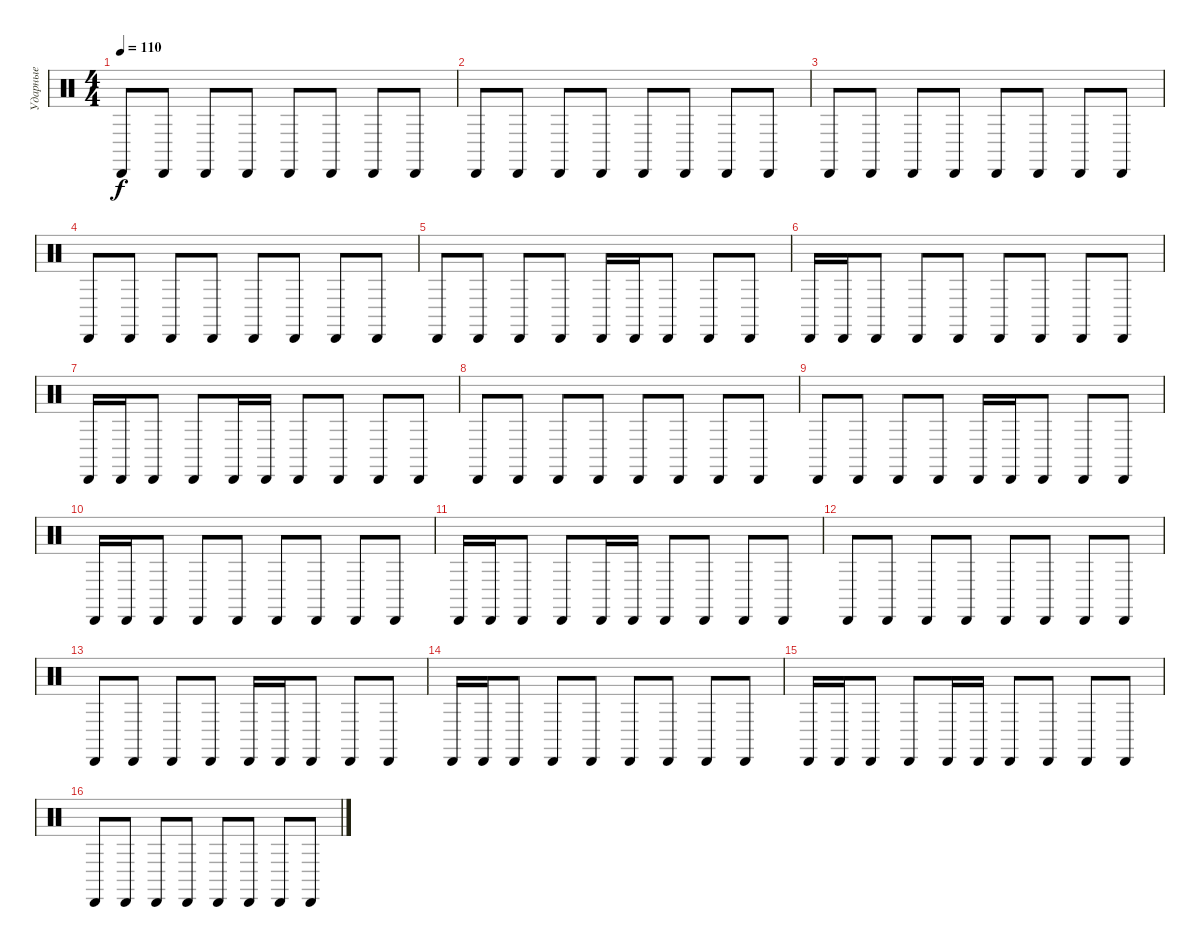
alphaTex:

\track ("Ударные" "Ударные") {instrument percussion}
\staff {score}
\articulation defaults
\ts (4 4)
\tempo 110
\clef neutral
\ks c "Cabasa (hit)".8{dy f} "Cabasa (hit)".8 "Cabasa (hit)".8 "Cabasa (hit)".8 "Cabasa (hit)".8 "Cabasa (hit)".8 "Cabasa (hit)".8 "Cabasa (hit)".8
|
"Cabasa (hit)".8 "Cabasa (hit)".8 "Cabasa (hit)".8 "Cabasa (hit)".8 "Cabasa (hit)".8 "Cabasa (hit)".8 "Cabasa (hit)".8 "Cabasa (hit)".8 |
"Cabasa (hit)".8 "Cabasa (hit)".8 "Cabasa (hit)".8 "Cabasa (hit)".8 "Cabasa (hit)".8 "Cabasa (hit)".8 "Cabasa (hit)".8 "Cabasa (hit)".8 |
"Cabasa (hit)".8 "Cabasa (hit)".8 "Cabasa (hit)".8 "Cabasa (hit)".8 "Cabasa (hit)".8 "Cabasa (hit)".8 "Cabasa (hit)".8 "Cabasa (hit)".8 |
"Cabasa (hit)".8 "Cabasa (hit)".8 "Cabasa (hit)".8 "Cabasa (hit)".8 "Cabasa (hit)".16 "Cabasa (hit)".16 "Cabasa (hit)".8 "Cabasa (hit)".8 "Cabasa (hit)".8 |
"Cabasa (hit)".16 "Cabasa (hit)".16 "Cabasa (hit)".8 "Cabasa (hit)".8 "Cabasa (hit)".8 "Cabasa (hit)".8 "Cabasa (hit)".8 "Cabasa (hit)".8 "Cabasa (hit)".8 |
"Cabasa (hit)".16 "Cabasa (hit)".16 "Cabasa (hit)".8 "Cabasa (hit)".8 "Cabasa (hit)".16 "Cabasa (hit)".16 "Cabasa (hit)".8 "Cabasa (hit)".8 "Cabasa (hit)".8 "Cabasa (hit)".8 |
"Cabasa (hit)".8 "Cabasa (hit)".8 "Cabasa (hit)".8 "Cabasa (hit)".8 "Cabasa (hit)".8 "Cabasa (hit)".8 "Cabasa (hit)".8 "Cabasa (hit)".8 |
"Cabasa (hit)".8 "Cabasa (hit)".8 "Cabasa (hit)".8 "Cabasa (hit)".8 "Cabasa (hit)".16 "Cabasa (hit)".16 "Cabasa (hit)".8 "Cabasa (hit)".8 "Cabasa (hit)".8 |
"Cabasa (hit)".16 "Cabasa (hit)".16 "Cabasa (hit)".8 "Cabasa (hit)".8 "Cabasa (hit)".8 "Cabasa (hit)".8 "Cabasa (hit)".8 "Cabasa (hit)".8 "Cabasa (hit)".8 |
"Cabasa (hit)".16 "Cabasa (hit)".16 "Cabasa (hit)".8 "Cabasa (hit)".8 "Cabasa (hit)".16 "Cabasa (hit)".16 "Cabasa (hit)".8 "Cabasa (hit)".8 "Cabasa (hit)".8 "Cabasa (hit)".8 |
"Cabasa (hit)".8 "Cabasa (hit)".8 "Cabasa (hit)".8 "Cabasa (hit)".8 "Cabasa (hit)".8 "Cabasa (hit)".8 "Cabasa (hit)".8 "Cabasa (hit)".8 |
"Cabasa (hit)".8 "Cabasa (hit)".8 "Cabasa (hit)".8 "Cabasa (hit)".8 "Cabasa (hit)".16 "Cabasa (hit)".16 "Cabasa (hit)".8 "Cabasa (hit)".8 "Cabasa (hit)".8 |
"Cabasa (hit)".16 "Cabasa (hit)".16 "Cabasa (hit)".8 "Cabasa (hit)".8 "Cabasa (hit)".8 "Cabasa (hit)".8 "Cabasa (hit)".8 "Cabasa (hit)".8 "Cabasa (hit)".8 |
"Cabasa (hit)".16 "Cabasa (hit)".16 "Cabasa (hit)".8 "Cabasa (hit)".8 "Cabasa (hit)".16 "Cabasa (hit)".16 "Cabasa (hit)".8 "Cabasa (hit)".8 "Cabasa (hit)".8 "Cabasa (hit)".8 |
"Cabasa (hit)".8 "Cabasa (hit)".8 "Cabasa (hit)".8 "Cabasa (hit)".8 "Cabasa (hit)".8 "Cabasa (hit)".8 "Cabasa (hit)".8 "Cabasa (hit)".8
